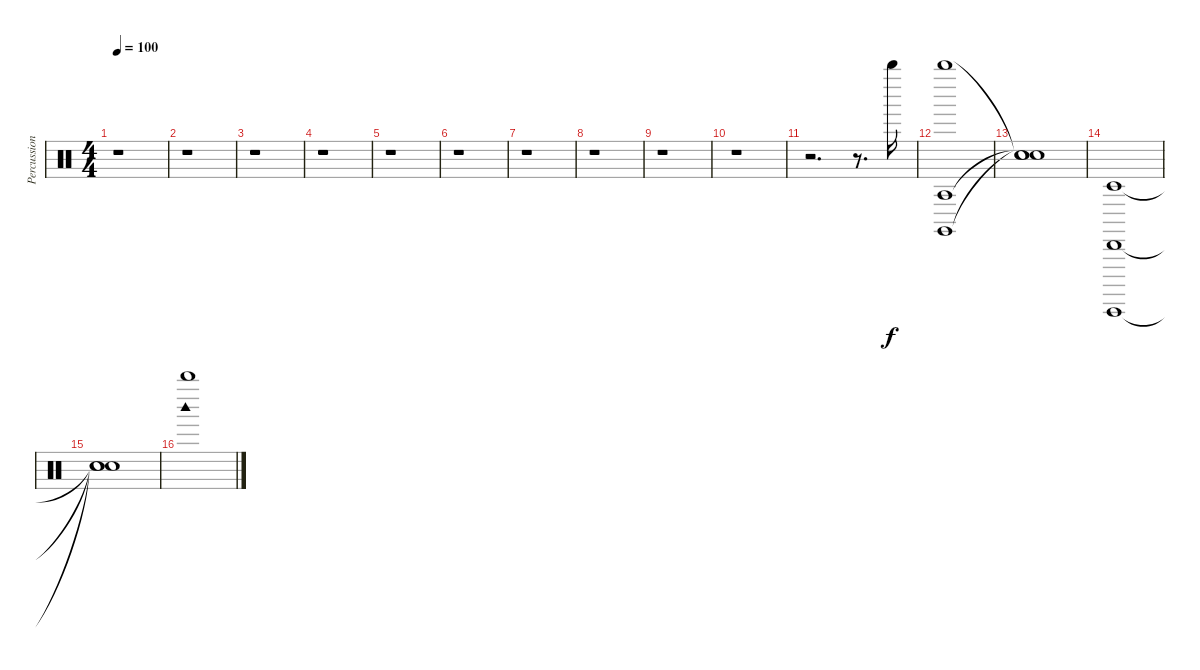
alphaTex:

\track ("Percussion Organ" "Percussion") {instrument percussion}
\staff {score}
\articulation defaults
\ts (4 4)
\tempo 100
\clef neutral
\ks c
r.1{dy f} |
r.1 |
r.1 |
r.1 |
r.1 |
r.1 |
r.1 |
r.1 |
r.1 |
r.1 |
r.2{d} r.8{d} "Whistle high (hit)".16 |
("Whistle high (hit)" "Claves (hit)" "Agogo tow (hit)").1 |
("Snare (hit)"{t} "Snare (hit)"{t} "Snare (hit)"{t}).1 |
("Timbale low (hit)" "Cabasa (hit)" "Guiro (hit)").1 |
("Snare (hit)"{t} "Snare (hit)"{t} "Snare (hit)"{t}).1 |
("Whistle high (hit)" "Woodblock high (hit)").1
